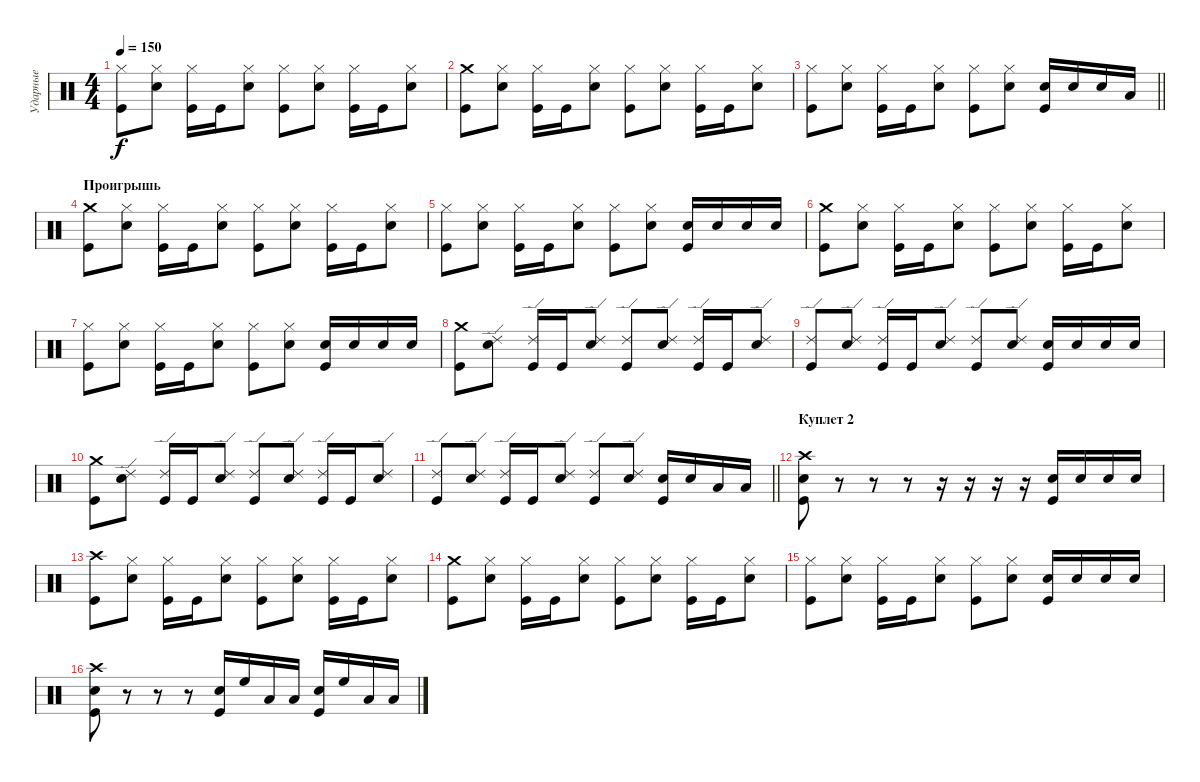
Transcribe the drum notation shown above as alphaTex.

\track ("Ударные" "Ударные") {instrument percussion}
\staff {score}
\articulation defaults
\ts (4 4)
\tempo 150
\clef neutral
\ks c
("Kick (hit)" "Hi-Hat (closed)").8{dy f} ("Snare (hit) 2" "Hi-Hat (closed)").8 ("Kick (hit)" "Hi-Hat (closed)").16 "Kick (hit)".16 ("Snare (hit) 2" "Hi-Hat (closed)").8 ("Kick (hit)" "Hi-Hat (closed)").8 ("Snare (hit) 2" "Hi-Hat (closed)").8 ("Kick (hit)" "Hi-Hat (closed)").16 "Kick (hit)".16 ("Snare (hit) 2" "Hi-Hat (closed)").8 |
("Kick (hit)" "Crash medium (hit)").8 ("Snare (hit) 2" "Hi-Hat (closed)").8 ("Kick (hit)" "Hi-Hat (closed)").16 "Kick (hit)".16 ("Snare (hit) 2" "Hi-Hat (closed)").8 ("Kick (hit)" "Hi-Hat (closed)").8 ("Snare (hit) 2" "Hi-Hat (closed)").8 ("Kick (hit)" "Hi-Hat (closed)").16 "Kick (hit)".16 ("Snare (hit) 2" "Hi-Hat (closed)").8 |
\barLineRight lightlight
("Kick (hit)" "Hi-Hat (closed)").8 ("Snare (hit) 2" "Hi-Hat (closed)").8 ("Kick (hit)" "Hi-Hat (closed)").16 "Kick (hit)".16 ("Snare (hit) 2" "Hi-Hat (closed)").8 ("Kick (hit)" "Hi-Hat (closed)").8 ("Snare (hit) 2" "Hi-Hat (closed)").8 ("Snare (hit) 2" "Kick (hit)").16 "Snare (hit) 2".16 "Snare (hit) 2".16 "Low Tom (hit)".16 |
\section ("" "Проигрышь")
("Kick (hit)" "Crash medium (hit)").8 ("Snare (hit) 2" "Hi-Hat (closed)").8 ("Kick (hit)" "Hi-Hat (closed)").16 "Kick (hit)".16 ("Snare (hit) 2" "Hi-Hat (closed)").8 ("Kick (hit)" "Hi-Hat (closed)").8 ("Snare (hit) 2" "Hi-Hat (closed)").8 ("Kick (hit)" "Hi-Hat (closed)").16 "Kick (hit)".16 ("Snare (hit) 2" "Hi-Hat (closed)").8 |
("Kick (hit)" "Hi-Hat (closed)").8 ("Snare (hit) 2" "Hi-Hat (closed)").8 ("Kick (hit)" "Hi-Hat (closed)").16 "Kick (hit)".16 ("Snare (hit) 2" "Hi-Hat (closed)").8 ("Kick (hit)" "Hi-Hat (closed)").8 ("Snare (hit) 2" "Hi-Hat (closed)").8 ("Snare (hit) 2" "Kick (hit)").16 "Snare (hit) 2".16 "Snare (hit) 2".16 "Snare (hit) 2".16 |
("Kick (hit)" "Crash medium (hit)").8 ("Snare (hit) 2" "Hi-Hat (closed)").8 ("Kick (hit)" "Hi-Hat (closed)").16 "Kick (hit)".16 ("Snare (hit) 2" "Hi-Hat (closed)").8 ("Kick (hit)" "Hi-Hat (closed)").8 ("Snare (hit) 2" "Hi-Hat (closed)").8 ("Kick (hit)" "Hi-Hat (closed)").16 "Kick (hit)".16 ("Snare (hit) 2" "Hi-Hat (closed)").8 |
("Kick (hit)" "Hi-Hat (closed)").8 ("Snare (hit) 2" "Hi-Hat (closed)").8 ("Kick (hit)" "Hi-Hat (closed)").16 "Kick (hit)".16 ("Snare (hit) 2" "Hi-Hat (closed)").8 ("Kick (hit)" "Hi-Hat (closed)").8 ("Snare (hit) 2" "Hi-Hat (closed)").8 ("Snare (hit) 2" "Kick (hit)").16 "Snare (hit) 2".16 "Snare (hit) 2".16 "Snare (hit) 2".16 |
("Kick (hit)" "Crash medium (hit)").8 ("Snare (hit) 2" "Ride (edge) 2").8 ("Kick (hit)" "Ride (edge) 2").16 "Kick (hit)".16 ("Snare (hit) 2" "Ride (edge) 2").8 ("Kick (hit)" "Ride (edge) 2").8 ("Snare (hit) 2" "Ride (edge) 2").8 ("Kick (hit)" "Ride (edge) 2").16 "Kick (hit)".16 ("Snare (hit) 2" "Ride (edge) 2").8 |
("Kick (hit)" "Ride (edge) 2").8 ("Snare (hit) 2" "Ride (edge) 2").8 ("Kick (hit)" "Ride (edge) 2").16 "Kick (hit)".16 ("Snare (hit) 2" "Ride (edge) 2").8 ("Kick (hit)" "Ride (edge) 2").8 ("Snare (hit) 2" "Ride (edge) 2").8 ("Snare (hit) 2" "Kick (hit)").16 "Snare (hit) 2".16 "Snare (hit) 2".16 "Snare (hit) 2".16 |
("Kick (hit)" "Crash medium (hit)").8 ("Snare (hit) 2" "Ride (edge) 2").8 ("Kick (hit)" "Ride (edge) 2").16 "Kick (hit)".16 ("Snare (hit) 2" "Ride (edge) 2").8 ("Kick (hit)" "Ride (edge) 2").8 ("Snare (hit) 2" "Ride (edge) 2").8 ("Kick (hit)" "Ride (edge) 2").16 "Kick (hit)".16 ("Snare (hit) 2" "Ride (edge) 2").8 |
\barLineRight lightlight
("Kick (hit)" "Ride (edge) 2").8 ("Snare (hit) 2" "Ride (edge) 2").8 ("Kick (hit)" "Ride (edge) 2").16 "Kick (hit)".16 ("Snare (hit) 2" "Ride (edge) 2").8 ("Kick (hit)" "Ride (edge) 2").8 ("Snare (hit) 2" "Ride (edge) 2").8 ("Snare (hit) 2" "Kick (hit)").16 "Snare (hit) 2".16 "Low Tom (hit)".16 "Low Tom (hit)".16 |
\section ("" "Куплет 2")
("Kick (hit)" "Snare (hit) 2" "Crash high (hit)").8 r.8 r.8 r.8 r.16 r.16 r.16 r.16 ("Snare (hit) 2" "Kick (hit)").16 "Snare (hit) 2".16 "Snare (hit) 2".16 "Snare (hit) 2".16 |
("Kick (hit)" "Crash high (hit)").8 ("Snare (hit) 2" "Hi-Hat (closed)").8 ("Kick (hit)" "Hi-Hat (closed)").16 "Kick (hit)".16 ("Snare (hit) 2" "Hi-Hat (closed)").8 ("Kick (hit)" "Hi-Hat (closed)").8 ("Snare (hit) 2" "Hi-Hat (closed)").8 ("Kick (hit)" "Hi-Hat (closed)").16 "Kick (hit)".16 ("Snare (hit) 2" "Hi-Hat (closed)").8 |
("Kick (hit)" "Crash medium (hit)").8 ("Snare (hit) 2" "Hi-Hat (closed)").8 ("Kick (hit)" "Hi-Hat (closed)").16 "Kick (hit)".16 ("Snare (hit) 2" "Hi-Hat (closed)").8 ("Kick (hit)" "Hi-Hat (closed)").8 ("Snare (hit) 2" "Hi-Hat (closed)").8 ("Kick (hit)" "Hi-Hat (closed)").16 "Kick (hit)".16 ("Snare (hit) 2" "Hi-Hat (closed)").8 |
("Kick (hit)" "Hi-Hat (closed)").8 ("Snare (hit) 2" "Hi-Hat (closed)").8 ("Kick (hit)" "Hi-Hat (closed)").16 "Kick (hit)".16 ("Snare (hit) 2" "Hi-Hat (closed)").8 ("Kick (hit)" "Hi-Hat (closed)").8 ("Snare (hit) 2" "Hi-Hat (closed)").8 ("Snare (hit) 2" "Kick (hit)").16 "Snare (hit) 2".16 "Snare (hit) 2".16 "Snare (hit) 2".16 |
("Kick (hit)" "Snare (hit) 2" "Crash high (hit)").8 r.8 r.8 r.8 ("Snare (hit) 2" "Kick (hit)").16 "High Floor Tom (hit)".16 "Low Tom (hit)".16 "Low Tom (hit)".16 ("Snare (hit) 2" "Kick (hit)").16 "High Floor Tom (hit)".16 "Low Tom (hit)".16 "Low Tom (hit)".16
